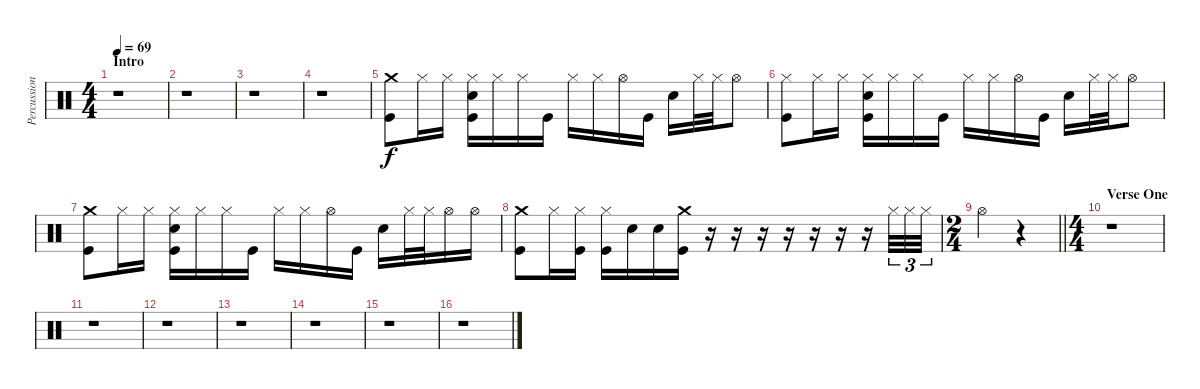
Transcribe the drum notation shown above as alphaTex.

\track ("Percussion" "Percussion") {instrument percussion}
\staff {score}
\articulation defaults
\ts (4 4)
\section ("" "Intro")
\tempo 69
\clef neutral
\ks c
r.1{dy f} |
r.1 |
r.1 |
r.1 |
("Crash medium (hit)" "Kick (hit)").8 "Hi-Hat (closed)".16 "Hi-Hat (closed)".16 ("Hi-Hat (closed)" "Kick (hit)" "Electric Snare (hit)").16 "Hi-Hat (closed)".16 "Hi-Hat (closed)".16 "Kick (hit)".16 "Hi-Hat (closed)".16 "Hi-Hat (closed)".16 "Hi-Hat (open)".16 "Kick (hit)".16 "Electric Snare (hit)".16 "Hi-Hat (closed)".32 "Hi-Hat (closed)".32 "Hi-Hat (open)".8 |
("Hi-Hat (closed)" "Kick (hit)").8 "Hi-Hat (closed)".16 "Hi-Hat (closed)".16 ("Hi-Hat (closed)" "Kick (hit)" "Electric Snare (hit)").16 "Hi-Hat (closed)".16 "Hi-Hat (closed)".16 "Kick (hit)".16 "Hi-Hat (closed)".16 "Hi-Hat (closed)".16 "Hi-Hat (open)".16 "Kick (hit)".16 "Electric Snare (hit)".16 "Hi-Hat (closed)".32 "Hi-Hat (closed)".32 "Hi-Hat (open)".8 |
("Crash medium (hit)" "Kick (hit)").8 "Hi-Hat (closed)".16 "Hi-Hat (closed)".16 ("Hi-Hat (closed)" "Kick (hit)" "Electric Snare (hit)").16 "Hi-Hat (closed)".16 "Hi-Hat (closed)".16 "Kick (hit)".16 "Hi-Hat (closed)".16 "Hi-Hat (closed)".16 "Hi-Hat (open)".16 "Kick (hit)".16 "Electric Snare (hit)".16 "Hi-Hat (closed)".32 "Hi-Hat (closed)".32 "Hi-Hat (open)".16 "Hi-Hat (open)".16 |
("Crash medium (hit)" "Kick (hit)").8 "Hi-Hat (closed)".16 ("Hi-Hat (closed)" "Kick (hit)").16 ("Hi-Hat (closed)" "Kick (hit)").16 "Electric Snare (hit)".16 "Electric Snare (hit)".16 ("Crash medium (hit)" "Kick (hit)").16 r.16 r.16 r.16 r.16 r.16 r.16 r.16 "Hi-Hat (closed)".32{tu (3 2)} "Hi-Hat (closed)".32{tu (3 2)} "Hi-Hat (closed)".32{tu (3 2)} |
\ts (2 4)
\barLineRight lightlight "Hi-Hat (open)".4
r.4 |
\ts (4 4)
\section ("" "Verse One")
r.1 |
r.1 |
r.1 |
r.1 |
r.1 |
r.1 |
r.1
